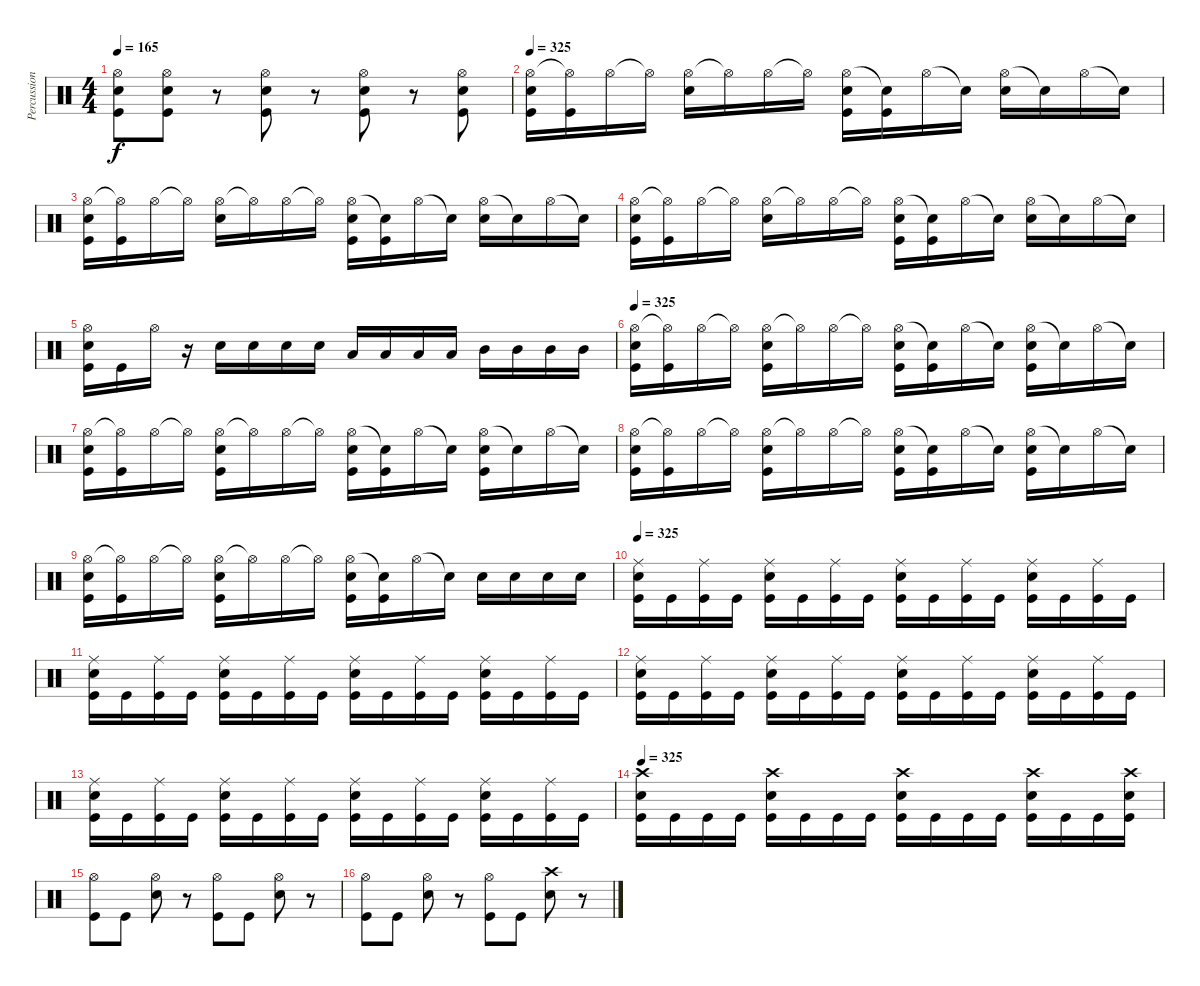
\track ("Percussion" "Percussion") {instrument percussion}
\staff {score}
\articulation defaults
\ts (4 4)
\tempo 165
\clef neutral
\ks c
("Hi-Hat (open)" "Snare (hit) 2" "Kick (hit)").8{dy f} ("Hi-Hat (open)" "Snare (hit) 2" "Kick (hit)").8 r.8 ("Hi-Hat (open)" "Snare (hit) 2" "Kick (hit)").8 r.8 ("Hi-Hat (open)" "Snare (hit) 2" "Kick (hit)").8 r.8 ("Hi-Hat (open)" "Snare (hit) 2" "Kick (hit)").8 |
\tempo 325
("Hi-Hat (open)" "Snare (hit) 2" "Kick (hit)").16 ("Hi-Hat (open)"{t} "Kick (hit)").16 "Hi-Hat (open)".16 "Hi-Hat (open)"{t}.16 ("Hi-Hat (open)" "Snare (hit) 2").16 "Hi-Hat (open)"{t}.16 "Hi-Hat (open)".16 "Hi-Hat (open)"{t}.16 ("Hi-Hat (open)" "Snare (hit) 2" "Kick (hit)").16 ("Snare (hit)"{t} "Kick (hit)").16 "Hi-Hat (open)".16 "Snare (hit)"{t}.16 ("Hi-Hat (open)" "Snare (hit) 2").16 "Snare (hit)"{t}.16 "Hi-Hat (open)".16 "Snare (hit)"{t}.16 |
("Hi-Hat (open)" "Snare (hit) 2" "Kick (hit)").16 ("Hi-Hat (open)"{t} "Kick (hit)").16 "Hi-Hat (open)".16 "Hi-Hat (open)"{t}.16 ("Hi-Hat (open)" "Snare (hit) 2").16 "Hi-Hat (open)"{t}.16 "Hi-Hat (open)".16 "Hi-Hat (open)"{t}.16 ("Hi-Hat (open)" "Snare (hit) 2" "Kick (hit)").16 ("Snare (hit)"{t} "Kick (hit)").16 "Hi-Hat (open)".16 "Snare (hit)"{t}.16 ("Hi-Hat (open)" "Snare (hit) 2").16 "Snare (hit)"{t}.16 "Hi-Hat (open)".16 "Snare (hit)"{t}.16 |
("Hi-Hat (open)" "Snare (hit) 2" "Kick (hit)").16 ("Hi-Hat (open)"{t} "Kick (hit)").16 "Hi-Hat (open)".16 "Hi-Hat (open)"{t}.16 ("Hi-Hat (open)" "Snare (hit) 2").16 "Hi-Hat (open)"{t}.16 "Hi-Hat (open)".16 "Hi-Hat (open)"{t}.16 ("Hi-Hat (open)" "Snare (hit) 2" "Kick (hit)").16 ("Snare (hit)"{t} "Kick (hit)").16 "Hi-Hat (open)".16 "Snare (hit)"{t}.16 ("Hi-Hat (open)" "Snare (hit) 2").16 "Snare (hit)"{t}.16 "Hi-Hat (open)".16 "Snare (hit)"{t}.16 |
("Hi-Hat (open)" "Snare (hit) 2" "Kick (hit)").16 "Kick (hit)".16 "Hi-Hat (open)".16 r.16 "Snare (hit) 2".16 "Snare (hit) 2".16 "Snare (hit) 2".16 "Snare (hit) 2".16 "Low Tom (hit)".16 "Low Tom (hit)".16 "Low Tom (hit)".16 "Low Tom (hit)".16 "Mid Tom (hit)".16 "Mid Tom (hit)".16 "Mid Tom (hit)".16 "Mid Tom (hit)".16 |
\tempo 325
("Hi-Hat (open)" "Snare (hit) 2" "Kick (hit)").16 ("Hi-Hat (open)"{t} "Kick (hit)").16 "Hi-Hat (open)".16 "Hi-Hat (open)"{t}.16 ("Hi-Hat (open)" "Snare (hit) 2" "Kick (hit)").16 "Hi-Hat (open)"{t}.16 "Hi-Hat (open)".16 "Hi-Hat (open)"{t}.16 ("Hi-Hat (open)" "Snare (hit) 2" "Kick (hit)").16 ("Snare (hit)"{t} "Kick (hit)").16 "Hi-Hat (open)".16 "Snare (hit)"{t}.16 ("Hi-Hat (open)" "Snare (hit) 2" "Kick (hit)").16 "Snare (hit)"{t}.16 "Hi-Hat (open)".16 "Snare (hit)"{t}.16 |
("Hi-Hat (open)" "Snare (hit) 2" "Kick (hit)").16 ("Hi-Hat (open)"{t} "Kick (hit)").16 "Hi-Hat (open)".16 "Hi-Hat (open)"{t}.16 ("Hi-Hat (open)" "Snare (hit) 2" "Kick (hit)").16 "Hi-Hat (open)"{t}.16 "Hi-Hat (open)".16 "Hi-Hat (open)"{t}.16 ("Hi-Hat (open)" "Snare (hit) 2" "Kick (hit)").16 ("Snare (hit)"{t} "Kick (hit)").16 "Hi-Hat (open)".16 "Snare (hit)"{t}.16 ("Hi-Hat (open)" "Snare (hit) 2" "Kick (hit)").16 "Snare (hit)"{t}.16 "Hi-Hat (open)".16 "Snare (hit)"{t}.16 |
("Hi-Hat (open)" "Snare (hit) 2" "Kick (hit)").16 ("Hi-Hat (open)"{t} "Kick (hit)").16 "Hi-Hat (open)".16 "Hi-Hat (open)"{t}.16 ("Hi-Hat (open)" "Snare (hit) 2" "Kick (hit)").16 "Hi-Hat (open)"{t}.16 "Hi-Hat (open)".16 "Hi-Hat (open)"{t}.16 ("Hi-Hat (open)" "Snare (hit) 2" "Kick (hit)").16 ("Snare (hit)"{t} "Kick (hit)").16 "Hi-Hat (open)".16 "Snare (hit)"{t}.16 ("Hi-Hat (open)" "Snare (hit) 2" "Kick (hit)").16 "Snare (hit)"{t}.16 "Hi-Hat (open)".16 "Snare (hit)"{t}.16 |
("Hi-Hat (open)" "Snare (hit) 2" "Kick (hit)").16 ("Hi-Hat (open)"{t} "Kick (hit)").16 "Hi-Hat (open)".16 "Hi-Hat (open)"{t}.16 ("Hi-Hat (open)" "Snare (hit) 2" "Kick (hit)").16 "Hi-Hat (open)"{t}.16 "Hi-Hat (open)".16 "Hi-Hat (open)"{t}.16 ("Hi-Hat (open)" "Snare (hit) 2" "Kick (hit)").16 ("Snare (hit)"{t} "Kick (hit)").16 "Hi-Hat (open)".16 "Snare (hit)"{t}.16 "Snare (hit) 2".16 "Snare (hit) 2".16 "Snare (hit) 2".16 "Snare (hit) 2".16 |
\tempo 325
("Ride (middle)" "Snare (hit) 2" "Kick (hit)").16 "Kick (hit)".16 ("Ride (middle)" "Kick (hit)").16 "Kick (hit)".16 ("Ride (middle)" "Snare (hit) 2" "Kick (hit)").16 "Kick (hit)".16 ("Ride (middle)" "Kick (hit)").16 "Kick (hit)".16 ("Ride (middle)" "Snare (hit) 2" "Kick (hit)").16 "Kick (hit)".16 ("Ride (middle)" "Kick (hit)").16 "Kick (hit)".16 ("Ride (middle)" "Snare (hit) 2" "Kick (hit)").16 "Kick (hit)".16 ("Ride (middle)" "Kick (hit)").16 "Kick (hit)".16 |
("Ride (middle)" "Snare (hit) 2" "Kick (hit)").16 "Kick (hit)".16 ("Ride (middle)" "Kick (hit)").16 "Kick (hit)".16 ("Ride (middle)" "Snare (hit) 2" "Kick (hit)").16 "Kick (hit)".16 ("Ride (middle)" "Kick (hit)").16 "Kick (hit)".16 ("Ride (middle)" "Snare (hit) 2" "Kick (hit)").16 "Kick (hit)".16 ("Ride (middle)" "Kick (hit)").16 "Kick (hit)".16 ("Ride (middle)" "Snare (hit) 2" "Kick (hit)").16 "Kick (hit)".16 ("Ride (middle)" "Kick (hit)").16 "Kick (hit)".16 |
("Ride (middle)" "Snare (hit) 2" "Kick (hit)").16 "Kick (hit)".16 ("Ride (middle)" "Kick (hit)").16 "Kick (hit)".16 ("Ride (middle)" "Snare (hit) 2" "Kick (hit)").16 "Kick (hit)".16 ("Ride (middle)" "Kick (hit)").16 "Kick (hit)".16 ("Ride (middle)" "Snare (hit) 2" "Kick (hit)").16 "Kick (hit)".16 ("Ride (middle)" "Kick (hit)").16 "Kick (hit)".16 ("Ride (middle)" "Snare (hit) 2" "Kick (hit)").16 "Kick (hit)".16 ("Ride (middle)" "Kick (hit)").16 "Kick (hit)".16 |
("Ride (middle)" "Snare (hit) 2" "Kick (hit)").16 "Kick (hit)".16 ("Ride (middle)" "Kick (hit)").16 "Kick (hit)".16 ("Ride (middle)" "Snare (hit) 2" "Kick (hit)").16 "Kick (hit)".16 ("Ride (middle)" "Kick (hit)").16 "Kick (hit)".16 ("Ride (middle)" "Snare (hit) 2" "Kick (hit)").16 "Kick (hit)".16 ("Ride (middle)" "Kick (hit)").16 "Kick (hit)".16 ("Ride (middle)" "Snare (hit) 2" "Kick (hit)").16 "Kick (hit)".16 ("Ride (middle)" "Kick (hit)").16 "Kick (hit)".16 |
\tempo 325
("Crash high (hit)" "Snare (hit) 2" "Kick (hit)").16 "Kick (hit)".16 "Kick (hit)".16 "Kick (hit)".16 ("Crash high (hit)" "Snare (hit) 2" "Kick (hit)").16 "Kick (hit)".16 "Kick (hit)".16 "Kick (hit)".16 ("Crash high (hit)" "Snare (hit) 2" "Kick (hit)").16 "Kick (hit)".16 "Kick (hit)".16 "Kick (hit)".16 ("Crash high (hit)" "Snare (hit) 2" "Kick (hit)").16 "Kick (hit)".16 "Kick (hit)".16 ("Crash high (hit)" "Snare (hit) 2" "Kick (hit)").16 |
("Hi-Hat (open)" "Kick (hit)").8 "Kick (hit)".8 ("Hi-Hat (open)" "Snare (hit) 2").8 r.8 ("Hi-Hat (open)" "Kick (hit)").8 "Kick (hit)".8 ("Hi-Hat (open)" "Snare (hit) 2").8 r.8 |
("Hi-Hat (open)" "Kick (hit)").8 "Kick (hit)".8 ("Hi-Hat (open)" "Snare (hit) 2").8 r.8 ("Hi-Hat (open)" "Kick (hit)").8 "Kick (hit)".8 ("Crash high (hit)" "Snare (hit) 2").8 r.8
